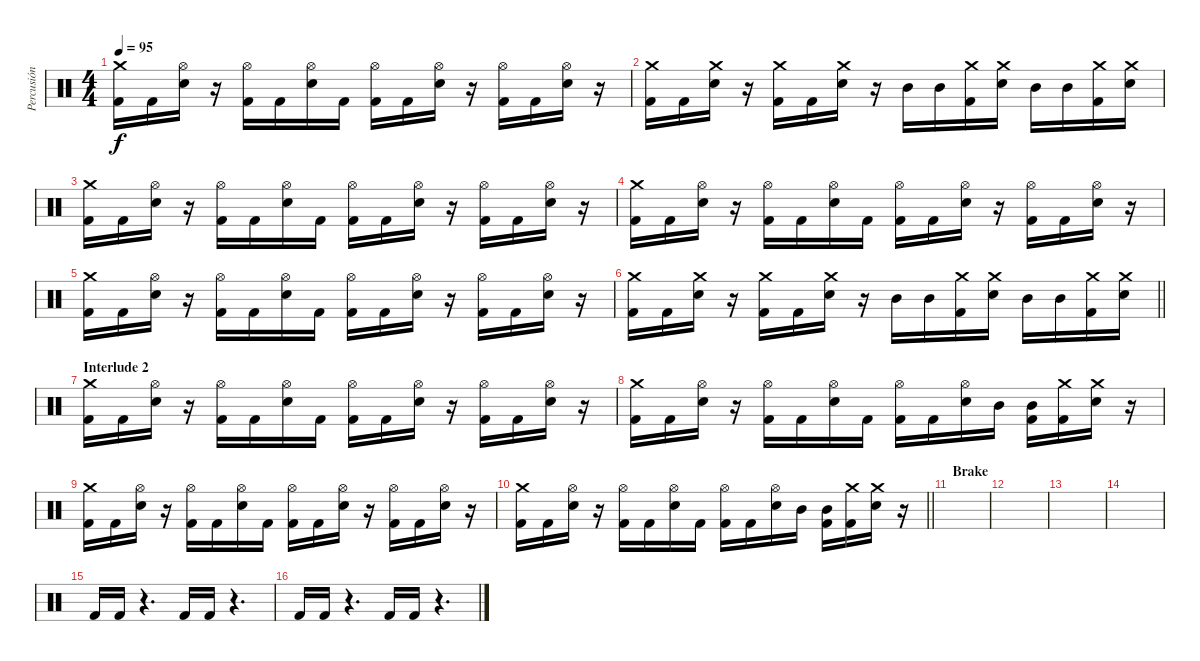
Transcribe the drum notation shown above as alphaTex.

\track ("Percusión" "Percusión") {instrument percussion}
\staff {score}
\articulation defaults
\ts (4 4)
\tempo 95
\clef neutral
\ks c
("Crash medium (hit)" "Kick (hit) 2").16{dy f} "Kick (hit) 2".16 ("Hi-Hat (open)" "Electric Snare (hit)").16 r.16 ("Hi-Hat (open)" "Kick (hit) 2").16 "Kick (hit) 2".16 ("Hi-Hat (open)" "Electric Snare (hit)").16 "Kick (hit) 2".16 ("Hi-Hat (open)" "Kick (hit) 2").16 "Kick (hit) 2".16 ("Hi-Hat (open)" "Electric Snare (hit)").16 r.16 ("Hi-Hat (open)" "Kick (hit) 2").16 "Kick (hit) 2".16 ("Hi-Hat (open)" "Electric Snare (hit)").16 r.16 |
("Crash medium (hit)" "Kick (hit) 2").16 "Kick (hit) 2".16 ("Crash medium (hit)" "Electric Snare (hit)").16 r.16 ("Crash medium (hit)" "Kick (hit) 2").16 "Kick (hit) 2".16 ("Crash medium (hit)" "Electric Snare (hit)").16 r.16 "Mid Tom (hit)".16 "Mid Tom (hit)".16 ("Crash medium (hit)" "Kick (hit) 2").16 ("Crash medium (hit)" "Electric Snare (hit)").16 "Mid Tom (hit)".16 "Mid Tom (hit)".16 ("Crash medium (hit)" "Kick (hit) 2").16 ("Crash medium (hit)" "Electric Snare (hit)").16 |
("Crash medium (hit)" "Kick (hit) 2").16 "Kick (hit) 2".16 ("Hi-Hat (open)" "Electric Snare (hit)").16 r.16 ("Hi-Hat (open)" "Kick (hit) 2").16 "Kick (hit) 2".16 ("Hi-Hat (open)" "Electric Snare (hit)").16 "Kick (hit) 2".16 ("Hi-Hat (open)" "Kick (hit) 2").16 "Kick (hit) 2".16 ("Hi-Hat (open)" "Electric Snare (hit)").16 r.16 ("Hi-Hat (open)" "Kick (hit) 2").16 "Kick (hit) 2".16 ("Hi-Hat (open)" "Electric Snare (hit)").16 r.16 |
("Crash medium (hit)" "Kick (hit) 2").16 "Kick (hit) 2".16 ("Hi-Hat (open)" "Electric Snare (hit)").16 r.16 ("Hi-Hat (open)" "Kick (hit) 2").16 "Kick (hit) 2".16 ("Hi-Hat (open)" "Electric Snare (hit)").16 "Kick (hit) 2".16 ("Hi-Hat (open)" "Kick (hit) 2").16 "Kick (hit) 2".16 ("Hi-Hat (open)" "Electric Snare (hit)").16 r.16 ("Hi-Hat (open)" "Kick (hit) 2").16 "Kick (hit) 2".16 ("Hi-Hat (open)" "Electric Snare (hit)").16 r.16 |
("Crash medium (hit)" "Kick (hit) 2").16 "Kick (hit) 2".16 ("Hi-Hat (open)" "Electric Snare (hit)").16 r.16 ("Hi-Hat (open)" "Kick (hit) 2").16 "Kick (hit) 2".16 ("Hi-Hat (open)" "Electric Snare (hit)").16 "Kick (hit) 2".16 ("Hi-Hat (open)" "Kick (hit) 2").16 "Kick (hit) 2".16 ("Hi-Hat (open)" "Electric Snare (hit)").16 r.16 ("Hi-Hat (open)" "Kick (hit) 2").16 "Kick (hit) 2".16 ("Hi-Hat (open)" "Electric Snare (hit)").16 r.16 |
\barLineRight lightlight
("Crash medium (hit)" "Kick (hit) 2").16 "Kick (hit) 2".16 ("Crash medium (hit)" "Electric Snare (hit)").16 r.16 ("Crash medium (hit)" "Kick (hit) 2").16 "Kick (hit) 2".16 ("Crash medium (hit)" "Electric Snare (hit)").16 r.16 "Mid Tom (hit)".16 "Mid Tom (hit)".16 ("Crash medium (hit)" "Kick (hit) 2").16 ("Crash medium (hit)" "Electric Snare (hit)").16 "Mid Tom (hit)".16 "Mid Tom (hit)".16 ("Crash medium (hit)" "Kick (hit) 2").16 ("Crash medium (hit)" "Electric Snare (hit)").16 |
\section ("" "Interlude 2")
("Crash medium (hit)" "Kick (hit) 2").16 "Kick (hit) 2".16 ("Hi-Hat (open)" "Electric Snare (hit)").16 r.16 ("Hi-Hat (open)" "Kick (hit) 2").16 "Kick (hit) 2".16 ("Hi-Hat (open)" "Electric Snare (hit)").16 "Kick (hit) 2".16 ("Hi-Hat (open)" "Kick (hit) 2").16 "Kick (hit) 2".16 ("Hi-Hat (open)" "Electric Snare (hit)").16 r.16 ("Hi-Hat (open)" "Kick (hit) 2").16 "Kick (hit) 2".16 ("Hi-Hat (open)" "Electric Snare (hit)").16 r.16 |
("Crash medium (hit)" "Kick (hit) 2").16 "Kick (hit) 2".16 ("Hi-Hat (open)" "Electric Snare (hit)").16 r.16 ("Hi-Hat (open)" "Kick (hit) 2").16 "Kick (hit) 2".16 ("Hi-Hat (open)" "Electric Snare (hit)").16 "Kick (hit) 2".16 ("Hi-Hat (open)" "Kick (hit) 2").16 "Kick (hit) 2".16 ("Hi-Hat (open)" "Electric Snare (hit)").16 "Mid Tom (hit)".16 ("Mid Tom (hit)" "Kick (hit) 2").16 ("Crash medium (hit)" "Kick (hit) 2").16 ("Crash medium (hit)" "Electric Snare (hit)").16 r.16 |
("Crash medium (hit)" "Kick (hit) 2").16 "Kick (hit) 2".16 ("Hi-Hat (open)" "Electric Snare (hit)").16 r.16 ("Hi-Hat (open)" "Kick (hit) 2").16 "Kick (hit) 2".16 ("Hi-Hat (open)" "Electric Snare (hit)").16 "Kick (hit) 2".16 ("Hi-Hat (open)" "Kick (hit) 2").16 "Kick (hit) 2".16 ("Hi-Hat (open)" "Electric Snare (hit)").16 r.16 ("Hi-Hat (open)" "Kick (hit) 2").16 "Kick (hit) 2".16 ("Hi-Hat (open)" "Electric Snare (hit)").16 r.16 |
\barLineRight lightlight
("Crash medium (hit)" "Kick (hit) 2").16 "Kick (hit) 2".16 ("Hi-Hat (open)" "Electric Snare (hit)").16 r.16 ("Hi-Hat (open)" "Kick (hit) 2").16 "Kick (hit) 2".16 ("Hi-Hat (open)" "Electric Snare (hit)").16 "Kick (hit) 2".16 ("Hi-Hat (open)" "Kick (hit) 2").16 "Kick (hit) 2".16 ("Hi-Hat (open)" "Electric Snare (hit)").16 "Mid Tom (hit)".16 ("Mid Tom (hit)" "Kick (hit) 2").16 ("Crash medium (hit)" "Kick (hit) 2").16 ("Crash medium (hit)" "Electric Snare (hit)").16 r.16 |
\section ("" "Brake")
|
|
|
|
"Kick (hit) 2".16 "Kick (hit) 2".16 r.4{d} "Kick (hit) 2".16 "Kick (hit) 2".16 r.4{d} |
"Kick (hit) 2".16 "Kick (hit) 2".16 r.4{d} "Kick (hit) 2".16 "Kick (hit) 2".16 r.4{d}
